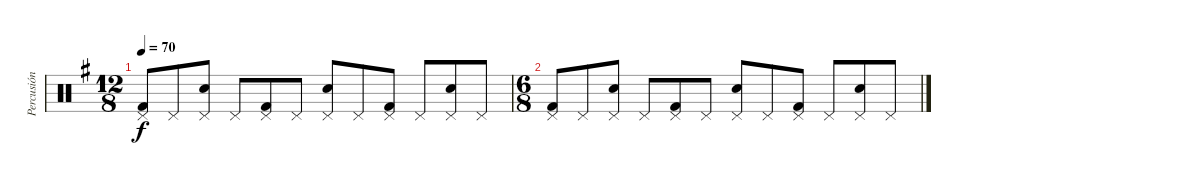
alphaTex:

\track ("Percusión" "Percusión") {mute instrument percussion}
\staff {score}
\articulation defaults
\ts (12 8)
\tempo 70
\clef neutral
\ks g
("Pedal Hi-Hat (hit)" "Kick (hit) 2").8{dy f} "Pedal Hi-Hat (hit)".8 ("Pedal Hi-Hat (hit)" "Snare (hit) 2").8 "Pedal Hi-Hat (hit)".8 ("Pedal Hi-Hat (hit)" "Kick (hit) 2").8 "Pedal Hi-Hat (hit)".8 ("Pedal Hi-Hat (hit)" "Snare (hit) 2").8 "Pedal Hi-Hat (hit)".8 ("Pedal Hi-Hat (hit)" "Kick (hit) 2").8 "Pedal Hi-Hat (hit)".8 ("Pedal Hi-Hat (hit)" "Snare (hit) 2").8 "Pedal Hi-Hat (hit)".8 |
\ts (6 8)
("Pedal Hi-Hat (hit)" "Kick (hit) 2").8 "Pedal Hi-Hat (hit)".8 ("Pedal Hi-Hat (hit)" "Snare (hit) 2").8 "Pedal Hi-Hat (hit)".8 ("Pedal Hi-Hat (hit)" "Kick (hit) 2").8 "Pedal Hi-Hat (hit)".8 ("Pedal Hi-Hat (hit)" "Snare (hit) 2").8 "Pedal Hi-Hat (hit)".8 ("Pedal Hi-Hat (hit)" "Kick (hit) 2").8 "Pedal Hi-Hat (hit)".8 ("Pedal Hi-Hat (hit)" "Snare (hit) 2").8 "Pedal Hi-Hat (hit)".8
